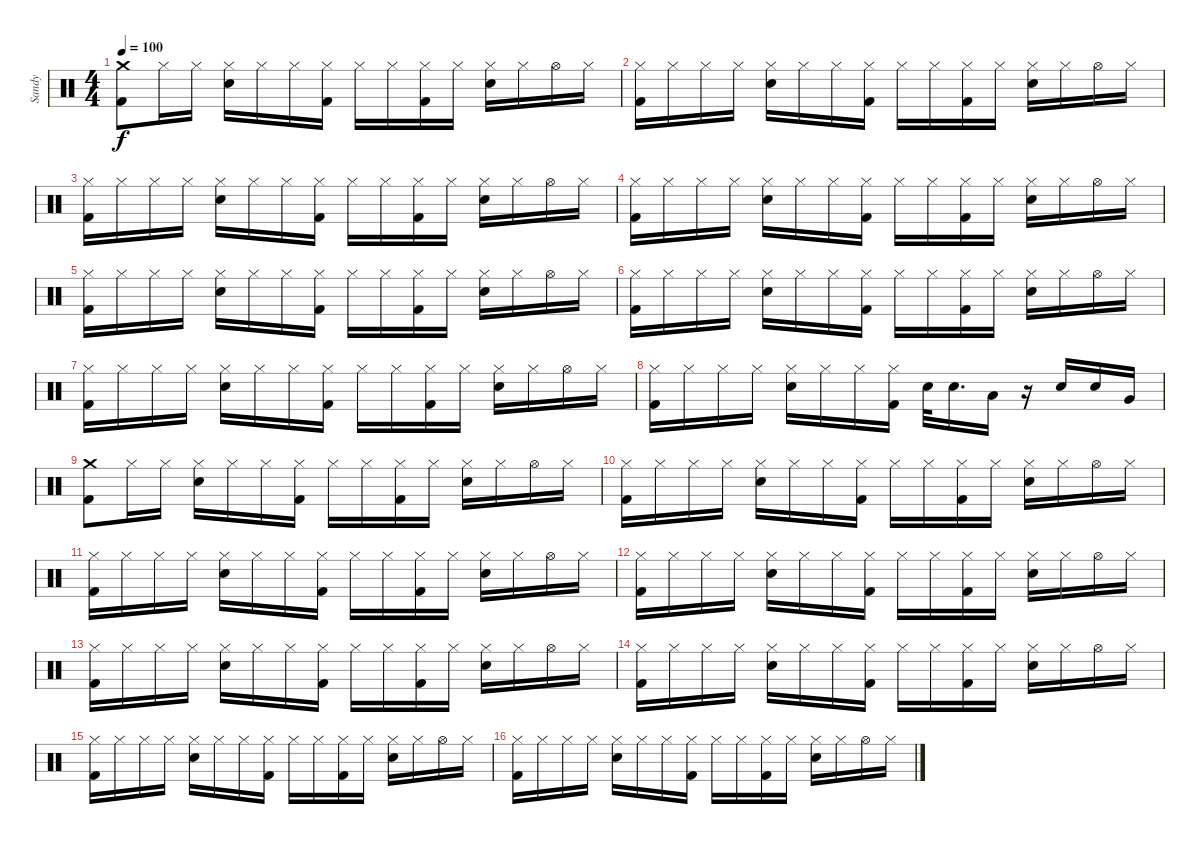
\track ("Sandy" "Sandy") {instrument percussion}
\staff {score}
\articulation defaults
\ts (4 4)
\tempo 100
\clef neutral
\ks c
("Crash medium (hit)" "Kick (hit) 2").8{dy f} "Hi-Hat (closed)".16 "Hi-Hat (closed)".16 ("Hi-Hat (closed)" "Snare (hit) 2").16 "Hi-Hat (closed)".16 "Hi-Hat (closed)".16 ("Hi-Hat (closed)" "Kick (hit) 2").16 "Hi-Hat (closed)".16 "Hi-Hat (closed)".16 ("Hi-Hat (closed)" "Kick (hit) 2").16 "Hi-Hat (closed)".16 ("Hi-Hat (closed)" "Snare (hit) 2").16 "Hi-Hat (closed)".16 "Hi-Hat (open)".16 "Hi-Hat (closed)".16 |
("Hi-Hat (closed)" "Kick (hit) 2").16 "Hi-Hat (closed)".16 "Hi-Hat (closed)".16 "Hi-Hat (closed)".16 ("Hi-Hat (closed)" "Snare (hit) 2").16 "Hi-Hat (closed)".16 "Hi-Hat (closed)".16 ("Hi-Hat (closed)" "Kick (hit) 2").16 "Hi-Hat (closed)".16 "Hi-Hat (closed)".16 ("Hi-Hat (closed)" "Kick (hit) 2").16 "Hi-Hat (closed)".16 ("Hi-Hat (closed)" "Snare (hit) 2").16 "Hi-Hat (closed)".16 "Hi-Hat (open)".16 "Hi-Hat (closed)".16 |
("Hi-Hat (closed)" "Kick (hit) 2").16 "Hi-Hat (closed)".16 "Hi-Hat (closed)".16 "Hi-Hat (closed)".16 ("Hi-Hat (closed)" "Snare (hit) 2").16 "Hi-Hat (closed)".16 "Hi-Hat (closed)".16 ("Hi-Hat (closed)" "Kick (hit) 2").16 "Hi-Hat (closed)".16 "Hi-Hat (closed)".16 ("Hi-Hat (closed)" "Kick (hit) 2").16 "Hi-Hat (closed)".16 ("Hi-Hat (closed)" "Snare (hit) 2").16 "Hi-Hat (closed)".16 "Hi-Hat (open)".16 "Hi-Hat (closed)".16 |
("Hi-Hat (closed)" "Kick (hit) 2").16 "Hi-Hat (closed)".16 "Hi-Hat (closed)".16 "Hi-Hat (closed)".16 ("Hi-Hat (closed)" "Snare (hit) 2").16 "Hi-Hat (closed)".16 "Hi-Hat (closed)".16 ("Hi-Hat (closed)" "Kick (hit) 2").16 "Hi-Hat (closed)".16 "Hi-Hat (closed)".16 ("Hi-Hat (closed)" "Kick (hit) 2").16 "Hi-Hat (closed)".16 ("Hi-Hat (closed)" "Snare (hit) 2").16 "Hi-Hat (closed)".16 "Hi-Hat (open)".16 "Hi-Hat (closed)".16 |
("Hi-Hat (closed)" "Kick (hit) 2").16 "Hi-Hat (closed)".16 "Hi-Hat (closed)".16 "Hi-Hat (closed)".16 ("Hi-Hat (closed)" "Snare (hit) 2").16 "Hi-Hat (closed)".16 "Hi-Hat (closed)".16 ("Hi-Hat (closed)" "Kick (hit) 2").16 "Hi-Hat (closed)".16 "Hi-Hat (closed)".16 ("Hi-Hat (closed)" "Kick (hit) 2").16 "Hi-Hat (closed)".16 ("Hi-Hat (closed)" "Snare (hit) 2").16 "Hi-Hat (closed)".16 "Hi-Hat (open)".16 "Hi-Hat (closed)".16 |
("Hi-Hat (closed)" "Kick (hit) 2").16 "Hi-Hat (closed)".16 "Hi-Hat (closed)".16 "Hi-Hat (closed)".16 ("Hi-Hat (closed)" "Snare (hit) 2").16 "Hi-Hat (closed)".16 "Hi-Hat (closed)".16 ("Hi-Hat (closed)" "Kick (hit) 2").16 "Hi-Hat (closed)".16 "Hi-Hat (closed)".16 ("Hi-Hat (closed)" "Kick (hit) 2").16 "Hi-Hat (closed)".16 ("Hi-Hat (closed)" "Snare (hit) 2").16 "Hi-Hat (closed)".16 "Hi-Hat (open)".16 "Hi-Hat (closed)".16 |
("Hi-Hat (closed)" "Kick (hit) 2").16 "Hi-Hat (closed)".16 "Hi-Hat (closed)".16 "Hi-Hat (closed)".16 ("Hi-Hat (closed)" "Snare (hit) 2").16 "Hi-Hat (closed)".16 "Hi-Hat (closed)".16 ("Hi-Hat (closed)" "Kick (hit) 2").16 "Hi-Hat (closed)".16 "Hi-Hat (closed)".16 ("Hi-Hat (closed)" "Kick (hit) 2").16 "Hi-Hat (closed)".16 ("Hi-Hat (closed)" "Snare (hit) 2").16 "Hi-Hat (closed)".16 "Hi-Hat (open)".16 "Hi-Hat (closed)".16 |
("Hi-Hat (closed)" "Kick (hit) 2").16 "Hi-Hat (closed)".16 "Hi-Hat (closed)".16 "Hi-Hat (closed)".16 ("Hi-Hat (closed)" "Snare (hit) 2").16 "Hi-Hat (closed)".16 "Hi-Hat (closed)".16 ("Hi-Hat (closed)" "Kick (hit) 2").16 "Electric Snare (hit)".32 "Electric Snare (hit)".16{d} "Low Tom (hit)".16 r.16 "Electric Snare (hit)".16 "Electric Snare (hit)".16 "Very Low Tom (hit)".16 |
("Crash medium (hit)" "Kick (hit) 2").8 "Hi-Hat (closed)".16 "Hi-Hat (closed)".16 ("Hi-Hat (closed)" "Snare (hit) 2").16 "Hi-Hat (closed)".16 "Hi-Hat (closed)".16 ("Hi-Hat (closed)" "Kick (hit) 2").16 "Hi-Hat (closed)".16 "Hi-Hat (closed)".16 ("Hi-Hat (closed)" "Kick (hit) 2").16 "Hi-Hat (closed)".16 ("Hi-Hat (closed)" "Snare (hit) 2").16 "Hi-Hat (closed)".16 "Hi-Hat (open)".16 "Hi-Hat (closed)".16 |
("Hi-Hat (closed)" "Kick (hit) 2").16 "Hi-Hat (closed)".16 "Hi-Hat (closed)".16 "Hi-Hat (closed)".16 ("Hi-Hat (closed)" "Snare (hit) 2").16 "Hi-Hat (closed)".16 "Hi-Hat (closed)".16 ("Hi-Hat (closed)" "Kick (hit) 2").16 "Hi-Hat (closed)".16 "Hi-Hat (closed)".16 ("Hi-Hat (closed)" "Kick (hit) 2").16 "Hi-Hat (closed)".16 ("Hi-Hat (closed)" "Snare (hit) 2").16 "Hi-Hat (closed)".16 "Hi-Hat (open)".16 "Hi-Hat (closed)".16 |
("Hi-Hat (closed)" "Kick (hit) 2").16 "Hi-Hat (closed)".16 "Hi-Hat (closed)".16 "Hi-Hat (closed)".16 ("Hi-Hat (closed)" "Snare (hit) 2").16 "Hi-Hat (closed)".16 "Hi-Hat (closed)".16 ("Hi-Hat (closed)" "Kick (hit) 2").16 "Hi-Hat (closed)".16 "Hi-Hat (closed)".16 ("Hi-Hat (closed)" "Kick (hit) 2").16 "Hi-Hat (closed)".16 ("Hi-Hat (closed)" "Snare (hit) 2").16 "Hi-Hat (closed)".16 "Hi-Hat (open)".16 "Hi-Hat (closed)".16 |
("Hi-Hat (closed)" "Kick (hit) 2").16 "Hi-Hat (closed)".16 "Hi-Hat (closed)".16 "Hi-Hat (closed)".16 ("Hi-Hat (closed)" "Snare (hit) 2").16 "Hi-Hat (closed)".16 "Hi-Hat (closed)".16 ("Hi-Hat (closed)" "Kick (hit) 2").16 "Hi-Hat (closed)".16 "Hi-Hat (closed)".16 ("Hi-Hat (closed)" "Kick (hit) 2").16 "Hi-Hat (closed)".16 ("Hi-Hat (closed)" "Snare (hit) 2").16 "Hi-Hat (closed)".16 "Hi-Hat (open)".16 "Hi-Hat (closed)".16 |
("Hi-Hat (closed)" "Kick (hit) 2").16 "Hi-Hat (closed)".16 "Hi-Hat (closed)".16 "Hi-Hat (closed)".16 ("Hi-Hat (closed)" "Snare (hit) 2").16 "Hi-Hat (closed)".16 "Hi-Hat (closed)".16 ("Hi-Hat (closed)" "Kick (hit) 2").16 "Hi-Hat (closed)".16 "Hi-Hat (closed)".16 ("Hi-Hat (closed)" "Kick (hit) 2").16 "Hi-Hat (closed)".16 ("Hi-Hat (closed)" "Snare (hit) 2").16 "Hi-Hat (closed)".16 "Hi-Hat (open)".16 "Hi-Hat (closed)".16 |
("Hi-Hat (closed)" "Kick (hit) 2").16 "Hi-Hat (closed)".16 "Hi-Hat (closed)".16 "Hi-Hat (closed)".16 ("Hi-Hat (closed)" "Snare (hit) 2").16 "Hi-Hat (closed)".16 "Hi-Hat (closed)".16 ("Hi-Hat (closed)" "Kick (hit) 2").16 "Hi-Hat (closed)".16 "Hi-Hat (closed)".16 ("Hi-Hat (closed)" "Kick (hit) 2").16 "Hi-Hat (closed)".16 ("Hi-Hat (closed)" "Snare (hit) 2").16 "Hi-Hat (closed)".16 "Hi-Hat (open)".16 "Hi-Hat (closed)".16 |
("Hi-Hat (closed)" "Kick (hit) 2").16 "Hi-Hat (closed)".16 "Hi-Hat (closed)".16 "Hi-Hat (closed)".16 ("Hi-Hat (closed)" "Snare (hit) 2").16 "Hi-Hat (closed)".16 "Hi-Hat (closed)".16 ("Hi-Hat (closed)" "Kick (hit) 2").16 "Hi-Hat (closed)".16 "Hi-Hat (closed)".16 ("Hi-Hat (closed)" "Kick (hit) 2").16 "Hi-Hat (closed)".16 ("Hi-Hat (closed)" "Snare (hit) 2").16 "Hi-Hat (closed)".16 "Hi-Hat (open)".16 "Hi-Hat (closed)".16 |
("Hi-Hat (closed)" "Kick (hit) 2").16 "Hi-Hat (closed)".16 "Hi-Hat (closed)".16 "Hi-Hat (closed)".16 ("Hi-Hat (closed)" "Snare (hit) 2").16 "Hi-Hat (closed)".16 "Hi-Hat (closed)".16 ("Hi-Hat (closed)" "Kick (hit) 2").16 "Hi-Hat (closed)".16 "Hi-Hat (closed)".16 ("Hi-Hat (closed)" "Kick (hit) 2").16 "Hi-Hat (closed)".16 ("Hi-Hat (closed)" "Snare (hit) 2").16 "Hi-Hat (closed)".16 "Hi-Hat (open)".16 "Hi-Hat (closed)".16
